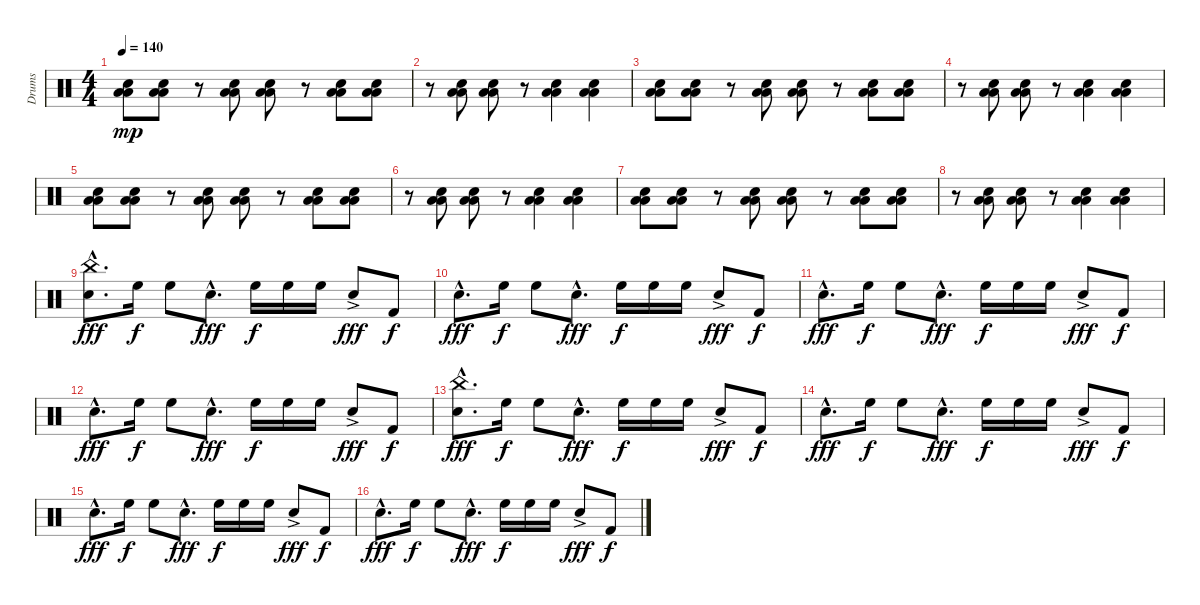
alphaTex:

\track ("Drums" "Drums") {instrument percussion}
\staff {score}
\articulation defaults
\ts (4 4)
\tempo 140
\clef neutral
\ks c
("Electric Snare (hit)" "Low Tom (hit)" "Low Floor Tom (hit)").8{dy mp} ("Electric Snare (hit)" "Low Tom (hit)" "Low Floor Tom (hit)").8 r.8 ("Electric Snare (hit)" "Low Tom (hit)" "Low Floor Tom (hit)").8 ("Electric Snare (hit)" "Low Tom (hit)" "Low Floor Tom (hit)").8 r.8 ("Electric Snare (hit)" "Low Tom (hit)" "Low Floor Tom (hit)").8 ("Electric Snare (hit)" "Low Tom (hit)" "Low Floor Tom (hit)").8 |
r.8 ("Electric Snare (hit)" "Low Tom (hit)" "Low Floor Tom (hit)").8 ("Electric Snare (hit)" "Low Tom (hit)" "Low Floor Tom (hit)").8 r.8 ("Electric Snare (hit)" "Low Tom (hit)" "Low Floor Tom (hit)").4 ("Electric Snare (hit)" "Low Tom (hit)" "Low Floor Tom (hit)").4 |
("Electric Snare (hit)" "Low Tom (hit)" "Low Floor Tom (hit)").8 ("Electric Snare (hit)" "Low Tom (hit)" "Low Floor Tom (hit)").8 r.8 ("Electric Snare (hit)" "Low Tom (hit)" "Low Floor Tom (hit)").8 ("Electric Snare (hit)" "Low Tom (hit)" "Low Floor Tom (hit)").8 r.8 ("Electric Snare (hit)" "Low Tom (hit)" "Low Floor Tom (hit)").8 ("Electric Snare (hit)" "Low Tom (hit)" "Low Floor Tom (hit)").8 |
r.8 ("Electric Snare (hit)" "Low Tom (hit)" "Low Floor Tom (hit)").8 ("Electric Snare (hit)" "Low Tom (hit)" "Low Floor Tom (hit)").8 r.8 ("Electric Snare (hit)" "Low Tom (hit)" "Low Floor Tom (hit)").4 ("Electric Snare (hit)" "Low Tom (hit)" "Low Floor Tom (hit)").4 |
("Electric Snare (hit)" "Low Tom (hit)" "Low Floor Tom (hit)").8 ("Electric Snare (hit)" "Low Tom (hit)" "Low Floor Tom (hit)").8 r.8 ("Electric Snare (hit)" "Low Tom (hit)" "Low Floor Tom (hit)").8 ("Electric Snare (hit)" "Low Tom (hit)" "Low Floor Tom (hit)").8 r.8 ("Electric Snare (hit)" "Low Tom (hit)" "Low Floor Tom (hit)").8 ("Electric Snare (hit)" "Low Tom (hit)" "Low Floor Tom (hit)").8 |
r.8 ("Electric Snare (hit)" "Low Tom (hit)" "Low Floor Tom (hit)").8 ("Electric Snare (hit)" "Low Tom (hit)" "Low Floor Tom (hit)").8 r.8 ("Electric Snare (hit)" "Low Tom (hit)" "Low Floor Tom (hit)").4 ("Electric Snare (hit)" "Low Tom (hit)" "Low Floor Tom (hit)").4 |
("Electric Snare (hit)" "Low Tom (hit)" "Low Floor Tom (hit)").8 ("Electric Snare (hit)" "Low Tom (hit)" "Low Floor Tom (hit)").8 r.8 ("Electric Snare (hit)" "Low Tom (hit)" "Low Floor Tom (hit)").8 ("Electric Snare (hit)" "Low Tom (hit)" "Low Floor Tom (hit)").8 r.8 ("Electric Snare (hit)" "Low Tom (hit)" "Low Floor Tom (hit)").8 ("Electric Snare (hit)" "Low Tom (hit)" "Low Floor Tom (hit)").8 |
r.8 ("Electric Snare (hit)" "Low Tom (hit)" "Low Floor Tom (hit)").8 ("Electric Snare (hit)" "Low Tom (hit)" "Low Floor Tom (hit)").8 r.8 ("Electric Snare (hit)" "Low Tom (hit)" "Low Floor Tom (hit)").4 ("Electric Snare (hit)" "Low Tom (hit)" "Low Floor Tom (hit)").4 |
("Electric Snare (hit)"{hac} "China (hit)"{hac}).8{d dy fff} "High Floor Tom (hit)".16{dy f} "High Floor Tom (hit)".8 "Electric Snare (hit)"{hac}.8{d dy fff} "High Floor Tom (hit)".16{dy f} "High Floor Tom (hit)".16 "High Floor Tom (hit)".16 "Electric Snare (hit)"{ac}.8{dy fff} "Kick (hit) 2".8{dy f} |
"Electric Snare (hit)"{hac}.8{d dy fff} "High Floor Tom (hit)".16{dy f} "High Floor Tom (hit)".8 "Electric Snare (hit)"{hac}.8{d dy fff} "High Floor Tom (hit)".16{dy f} "High Floor Tom (hit)".16 "High Floor Tom (hit)".16 "Electric Snare (hit)"{ac}.8{dy fff} "Kick (hit) 2".8{dy f} |
"Electric Snare (hit)"{hac}.8{d dy fff} "High Floor Tom (hit)".16{dy f} "High Floor Tom (hit)".8 "Electric Snare (hit)"{hac}.8{d dy fff} "High Floor Tom (hit)".16{dy f} "High Floor Tom (hit)".16 "High Floor Tom (hit)".16 "Electric Snare (hit)"{ac}.8{dy fff} "Kick (hit) 2".8{dy f} |
"Electric Snare (hit)"{hac}.8{d dy fff} "High Floor Tom (hit)".16{dy f} "High Floor Tom (hit)".8 "Electric Snare (hit)"{hac}.8{d dy fff} "High Floor Tom (hit)".16{dy f} "High Floor Tom (hit)".16 "High Floor Tom (hit)".16 "Electric Snare (hit)"{ac}.8{dy fff} "Kick (hit) 2".8{dy f} |
("Electric Snare (hit)"{hac} "China (hit)"{hac}).8{d dy fff} "High Floor Tom (hit)".16{dy f} "High Floor Tom (hit)".8 "Electric Snare (hit)"{hac}.8{d dy fff} "High Floor Tom (hit)".16{dy f} "High Floor Tom (hit)".16 "High Floor Tom (hit)".16 "Electric Snare (hit)"{ac}.8{dy fff} "Kick (hit) 2".8{dy f} |
"Electric Snare (hit)"{hac}.8{d dy fff} "High Floor Tom (hit)".16{dy f} "High Floor Tom (hit)".8 "Electric Snare (hit)"{hac}.8{d dy fff} "High Floor Tom (hit)".16{dy f} "High Floor Tom (hit)".16 "High Floor Tom (hit)".16 "Electric Snare (hit)"{ac}.8{dy fff} "Kick (hit) 2".8{dy f} |
"Electric Snare (hit)"{hac}.8{d dy fff} "High Floor Tom (hit)".16{dy f} "High Floor Tom (hit)".8 "Electric Snare (hit)"{hac}.8{d dy fff} "High Floor Tom (hit)".16{dy f} "High Floor Tom (hit)".16 "High Floor Tom (hit)".16 "Electric Snare (hit)"{ac}.8{dy fff} "Kick (hit) 2".8{dy f} |
"Electric Snare (hit)"{hac}.8{d dy fff} "High Floor Tom (hit)".16{dy f} "High Floor Tom (hit)".8 "Electric Snare (hit)"{hac}.8{d dy fff} "High Floor Tom (hit)".16{dy f} "High Floor Tom (hit)".16 "High Floor Tom (hit)".16 "Electric Snare (hit)"{ac}.8{dy fff} "Kick (hit) 2".8{dy f}
